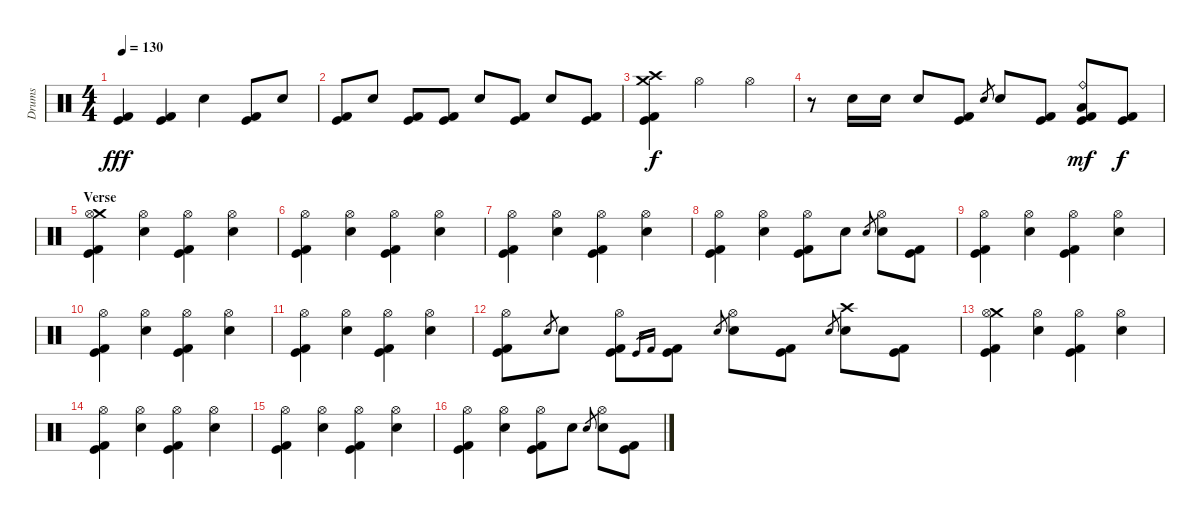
\track ("Drums" "Drums") {instrument percussion}
\staff {score}
\articulation defaults
\ts (4 4)
\tempo 130
\clef neutral
\ks c
("Kick (hit)" "Kick (hit) 2").4{dy fff} ("Kick (hit)" "Kick (hit) 2").4 "Electric Snare (hit)".4 ("Kick (hit)" "Kick (hit) 2").8 "Electric Snare (hit)".8 |
("Kick (hit)" "Kick (hit) 2").8 "Electric Snare (hit)".8 ("Kick (hit)" "Kick (hit) 2").8 ("Kick (hit)" "Kick (hit) 2").8 "Electric Snare (hit)".8 ("Kick (hit)" "Kick (hit) 2").8 "Electric Snare (hit)".8 ("Kick (hit)" "Kick (hit) 2").8 |
("Crash medium (hit)" "Crash high (hit)" "Kick (hit)" "Kick (hit) 2").4{dy f} "Hi-Hat (open)".2 "Hi-Hat (open)".4 |
r.8 "Electric Snare (hit)".16 "Electric Snare (hit)".16 "Electric Snare (hit)".8 ("Kick (hit)" "Kick (hit) 2").8 "Electric Snare (hit)".8{gr} "Electric Snare (hit)".8 ("Kick (hit)" "Kick (hit) 2").8 ("Ride (bell)" "Low Floor Tom (hit)" "Kick (hit)" "Kick (hit) 2").8{dy mf} ("Kick (hit)" "Kick (hit) 2").8{dy f} |
\section ("" "Verse")
("Crash medium (hit)" "Hi-Hat (open)" "Kick (hit)" "Kick (hit) 2").4 ("Hi-Hat (open)" "Electric Snare (hit)").4 ("Hi-Hat (open)" "Kick (hit)" "Kick (hit) 2").4 ("Hi-Hat (open)" "Electric Snare (hit)").4 |
("Hi-Hat (open)" "Kick (hit)" "Kick (hit) 2").4 ("Hi-Hat (open)" "Electric Snare (hit)").4 ("Hi-Hat (open)" "Kick (hit)" "Kick (hit) 2").4 ("Hi-Hat (open)" "Electric Snare (hit)").4 |
("Hi-Hat (open)" "Kick (hit)" "Kick (hit) 2").4 ("Hi-Hat (open)" "Electric Snare (hit)").4 ("Hi-Hat (open)" "Kick (hit)" "Kick (hit) 2").4 ("Hi-Hat (open)" "Electric Snare (hit)").4 |
("Hi-Hat (open)" "Kick (hit)" "Kick (hit) 2").4 ("Hi-Hat (open)" "Electric Snare (hit)").4 ("Hi-Hat (open)" "Kick (hit)" "Kick (hit) 2").8 "Electric Snare (hit)".8 "Electric Snare (hit)".8{gr} ("Hi-Hat (open)" "Electric Snare (hit)").8 ("Kick (hit)" "Kick (hit) 2").8 |
("Hi-Hat (open)" "Kick (hit)" "Kick (hit) 2").4 ("Hi-Hat (open)" "Electric Snare (hit)").4 ("Hi-Hat (open)" "Kick (hit)" "Kick (hit) 2").4 ("Hi-Hat (open)" "Electric Snare (hit)").4 |
("Hi-Hat (open)" "Kick (hit)" "Kick (hit) 2").4 ("Hi-Hat (open)" "Electric Snare (hit)").4 ("Hi-Hat (open)" "Kick (hit)" "Kick (hit) 2").4 ("Hi-Hat (open)" "Electric Snare (hit)").4 |
("Hi-Hat (open)" "Kick (hit)" "Kick (hit) 2").4 ("Hi-Hat (open)" "Electric Snare (hit)").4 ("Hi-Hat (open)" "Kick (hit)" "Kick (hit) 2").4 ("Hi-Hat (open)" "Electric Snare (hit)").4 |
("Hi-Hat (open)" "Kick (hit)" "Kick (hit) 2").8 "Electric Snare (hit)".8{gr} "Electric Snare (hit)".8 ("Hi-Hat (open)" "Kick (hit)" "Kick (hit) 2").8 "Kick (hit)".16{gr} "Kick (hit) 2".16{gr} ("Kick (hit)" "Kick (hit) 2").8 "Electric Snare (hit)".8{gr} ("Hi-Hat (open)" "Electric Snare (hit)").8 ("Kick (hit)" "Kick (hit) 2").8 "Electric Snare (hit)".8{gr} ("Crash high (hit)" "Electric Snare (hit)").8 ("Kick (hit)" "Kick (hit) 2").8 |
("Crash medium (hit)" "Hi-Hat (open)" "Kick (hit)" "Kick (hit) 2").4 ("Hi-Hat (open)" "Electric Snare (hit)").4 ("Hi-Hat (open)" "Kick (hit)" "Kick (hit) 2").4 ("Hi-Hat (open)" "Electric Snare (hit)").4 |
("Hi-Hat (open)" "Kick (hit)" "Kick (hit) 2").4 ("Hi-Hat (open)" "Electric Snare (hit)").4 ("Hi-Hat (open)" "Kick (hit)" "Kick (hit) 2").4 ("Hi-Hat (open)" "Electric Snare (hit)").4 |
("Hi-Hat (open)" "Kick (hit)" "Kick (hit) 2").4 ("Hi-Hat (open)" "Electric Snare (hit)").4 ("Hi-Hat (open)" "Kick (hit)" "Kick (hit) 2").4 ("Hi-Hat (open)" "Electric Snare (hit)").4 |
("Hi-Hat (open)" "Kick (hit)" "Kick (hit) 2").4 ("Hi-Hat (open)" "Electric Snare (hit)").4 ("Hi-Hat (open)" "Kick (hit)" "Kick (hit) 2").8 "Electric Snare (hit)".8 "Electric Snare (hit)".8{gr} ("Hi-Hat (open)" "Electric Snare (hit)").8 ("Kick (hit)" "Kick (hit) 2").8
